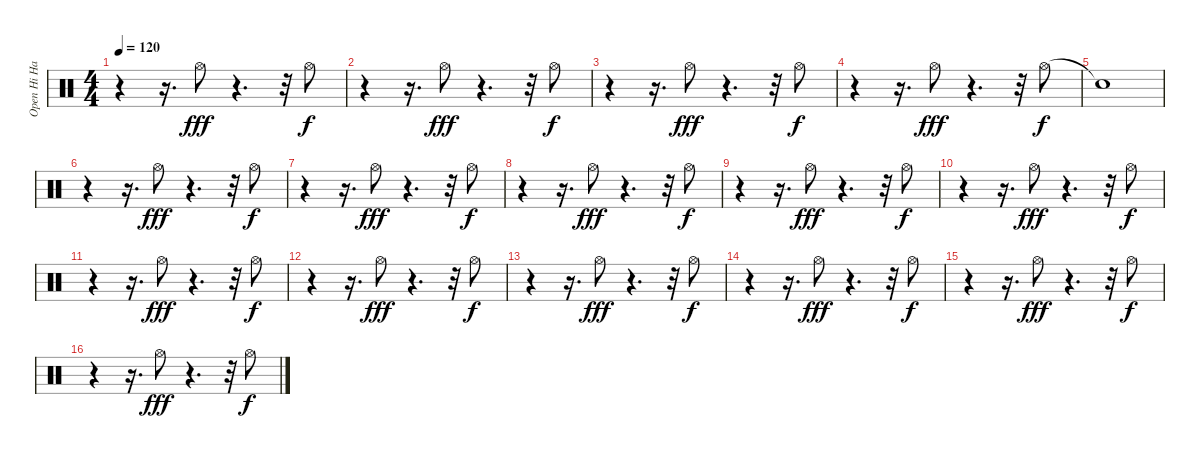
\track ("Open Hi Hat         " "Open Hi Ha") {instrument percussion}
\staff {score}
\articulation defaults
\ts (4 4)
\tempo 120
\clef neutral
\ks c
r.4{dy f} r.16{d} "Hi-Hat (open)".8{dy fff} r.4{d} r.32 "Hi-Hat (open)".8{dy f} |
r.4 r.16{d} "Hi-Hat (open)".8{dy fff} r.4{d} r.32 "Hi-Hat (open)".8{dy f} |
r.4 r.16{d} "Hi-Hat (open)".8{dy fff} r.4{d} r.32 "Hi-Hat (open)".8{dy f} |
r.4 r.16{d} "Hi-Hat (open)".8{dy fff} r.4{d} r.32 "Hi-Hat (open)".8{dy f} |
"Snare (hit)"{t}.1 |
r.4 r.16{d} "Hi-Hat (open)".8{dy fff} r.4{d} r.32 "Hi-Hat (open)".8{dy f} |
r.4 r.16{d} "Hi-Hat (open)".8{dy fff} r.4{d} r.32 "Hi-Hat (open)".8{dy f} |
r.4 r.16{d} "Hi-Hat (open)".8{dy fff} r.4{d} r.32 "Hi-Hat (open)".8{dy f} |
r.4 r.16{d} "Hi-Hat (open)".8{dy fff} r.4{d} r.32 "Hi-Hat (open)".8{dy f} |
r.4 r.16{d} "Hi-Hat (open)".8{dy fff} r.4{d} r.32 "Hi-Hat (open)".8{dy f} |
r.4 r.16{d} "Hi-Hat (open)".8{dy fff} r.4{d} r.32 "Hi-Hat (open)".8{dy f} |
r.4 r.16{d} "Hi-Hat (open)".8{dy fff} r.4{d} r.32 "Hi-Hat (open)".8{dy f} |
r.4 r.16{d} "Hi-Hat (open)".8{dy fff} r.4{d} r.32 "Hi-Hat (open)".8{dy f} |
r.4 r.16{d} "Hi-Hat (open)".8{dy fff} r.4{d} r.32 "Hi-Hat (open)".8{dy f} |
r.4 r.16{d} "Hi-Hat (open)".8{dy fff} r.4{d} r.32 "Hi-Hat (open)".8{dy f} |
r.4 r.16{d} "Hi-Hat (open)".8{dy fff} r.4{d} r.32 "Hi-Hat (open)".8{dy f}
